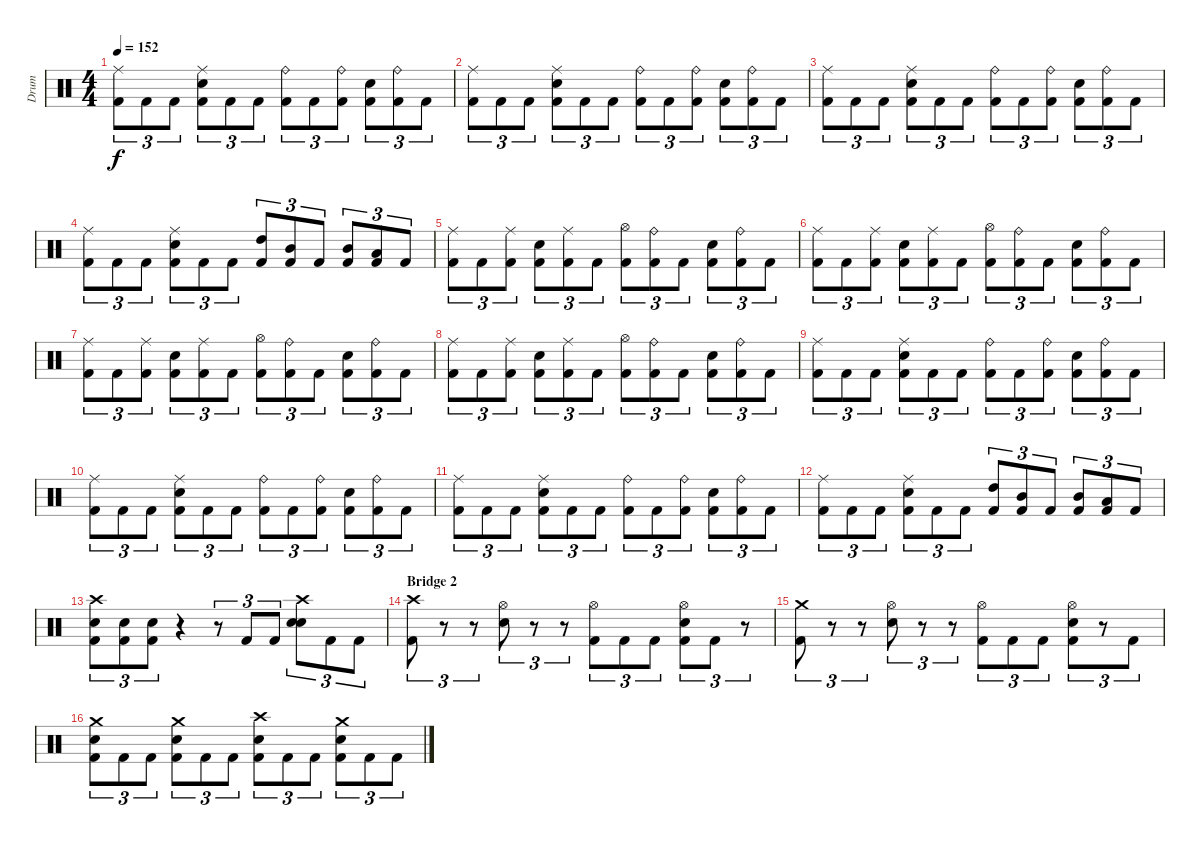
\track ("Drum" "Drum") {instrument percussion}
\staff {score}
\articulation defaults
\ts (4 4)
\tempo 152
\clef neutral
\ks c
("Ride (middle)" "Kick (hit) 2").8{tu (3 2) dy f} "Kick (hit) 2".8{tu (3 2)} "Kick (hit) 2".8{tu (3 2)} ("Ride (middle)" "Kick (hit) 2" "Electric Snare (hit)").8{tu (3 2)} "Kick (hit) 2".8{tu (3 2)} "Kick (hit) 2".8{tu (3 2)} ("Kick (hit) 2" "Ride (bell)").8{tu (3 2)} "Kick (hit) 2".8{tu (3 2)} ("Kick (hit) 2" "Ride (bell)").8{tu (3 2)} ("Electric Snare (hit)" "Kick (hit) 2").8{tu (3 2)} ("Kick (hit) 2" "Ride (bell)").8{tu (3 2)} "Kick (hit) 2".8{tu (3 2)} |
("Ride (middle)" "Kick (hit) 2").8{tu (3 2)} "Kick (hit) 2".8{tu (3 2)} "Kick (hit) 2".8{tu (3 2)} ("Electric Snare (hit)" "Kick (hit) 2" "Ride (middle)").8{tu (3 2)} "Kick (hit) 2".8{tu (3 2)} "Kick (hit) 2".8{tu (3 2)} ("Kick (hit) 2" "Ride (bell)").8{tu (3 2)} "Kick (hit) 2".8{tu (3 2)} ("Kick (hit) 2" "Ride (bell)").8{tu (3 2)} ("Electric Snare (hit)" "Kick (hit) 2").8{tu (3 2)} ("Kick (hit) 2" "Ride (bell)").8{tu (3 2)} "Kick (hit) 2".8{tu (3 2)} |
("Ride (middle)" "Kick (hit) 2").8{tu (3 2)} "Kick (hit) 2".8{tu (3 2)} "Kick (hit) 2".8{tu (3 2)} ("Ride (middle)" "Electric Snare (hit)" "Kick (hit) 2").8{tu (3 2)} "Kick (hit) 2".8{tu (3 2)} "Kick (hit) 2".8{tu (3 2)} ("Kick (hit) 2" "Ride (bell)").8{tu (3 2)} "Kick (hit) 2".8{tu (3 2)} ("Kick (hit) 2" "Ride (bell)").8{tu (3 2)} ("Electric Snare (hit)" "Kick (hit) 2").8{tu (3 2)} ("Kick (hit) 2" "Ride (bell)").8{tu (3 2)} "Kick (hit) 2".8{tu (3 2)} |
("Kick (hit) 2" "Ride (middle)").8{tu (3 2)} "Kick (hit) 2".8{tu (3 2)} "Kick (hit) 2".8{tu (3 2)} ("Ride (middle)" "Electric Snare (hit)" "Kick (hit) 2").8{tu (3 2)} "Kick (hit) 2".8{tu (3 2)} "Kick (hit) 2".8{tu (3 2)} ("Kick (hit) 2" "High Tom (hit)").8{tu (3 2)} ("Mid Tom (hit)" "Kick (hit) 2").8{tu (3 2)} "Kick (hit) 2".8{tu (3 2)} ("Kick (hit) 2" "Mid Tom (hit)").8{tu (3 2)} ("Kick (hit) 2" "Low Tom (hit)").8{tu (3 2)} "Kick (hit) 2".8{tu (3 2)} |
("Kick (hit) 2" "Ride (middle)").8{tu (3 2)} "Kick (hit) 2".8{tu (3 2)} ("Ride (middle)" "Kick (hit) 2").8{tu (3 2)} ("Electric Snare (hit)" "Kick (hit) 2").8{tu (3 2)} ("Kick (hit) 2" "Ride (middle)").8{tu (3 2)} "Kick (hit) 2".8{tu (3 2)} ("Hi-Hat (open)" "Kick (hit) 2").8{tu (3 2)} ("Ride (bell)" "Kick (hit) 2").8{tu (3 2)} "Kick (hit) 2".8{tu (3 2)} ("Electric Snare (hit)" "Kick (hit) 2").8{tu (3 2)} ("Ride (bell)" "Kick (hit) 2").8{tu (3 2)} "Kick (hit) 2".8{tu (3 2)} |
("Ride (middle)" "Kick (hit) 2").8{tu (3 2)} "Kick (hit) 2".8{tu (3 2)} ("Ride (middle)" "Kick (hit) 2").8{tu (3 2)} ("Kick (hit) 2" "Electric Snare (hit)").8{tu (3 2)} ("Kick (hit) 2" "Ride (middle)").8{tu (3 2)} "Kick (hit) 2".8{tu (3 2)} ("Hi-Hat (open)" "Kick (hit) 2").8{tu (3 2)} ("Ride (bell)" "Kick (hit) 2").8{tu (3 2)} "Kick (hit) 2".8{tu (3 2)} ("Kick (hit) 2" "Electric Snare (hit)").8{tu (3 2)} ("Ride (bell)" "Kick (hit) 2").8{tu (3 2)} "Kick (hit) 2".8{tu (3 2)} |
("Ride (middle)" "Kick (hit) 2").8{tu (3 2)} "Kick (hit) 2".8{tu (3 2)} ("Kick (hit) 2" "Ride (middle)").8{tu (3 2)} ("Electric Snare (hit)" "Kick (hit) 2").8{tu (3 2)} ("Ride (middle)" "Kick (hit) 2").8{tu (3 2)} "Kick (hit) 2".8{tu (3 2)} ("Hi-Hat (open)" "Kick (hit) 2").8{tu (3 2)} ("Kick (hit) 2" "Ride (bell)").8{tu (3 2)} "Kick (hit) 2".8{tu (3 2)} ("Electric Snare (hit)" "Kick (hit) 2").8{tu (3 2)} ("Ride (bell)" "Kick (hit) 2").8{tu (3 2)} "Kick (hit) 2".8{tu (3 2)} |
("Kick (hit) 2" "Ride (middle)").8{tu (3 2)} "Kick (hit) 2".8{tu (3 2)} ("Kick (hit) 2" "Ride (middle)").8{tu (3 2)} ("Kick (hit) 2" "Electric Snare (hit)").8{tu (3 2)} ("Ride (middle)" "Kick (hit) 2").8{tu (3 2)} "Kick (hit) 2".8{tu (3 2)} ("Hi-Hat (open)" "Kick (hit) 2").8{tu (3 2)} ("Kick (hit) 2" "Ride (bell)").8{tu (3 2)} "Kick (hit) 2".8{tu (3 2)} ("Electric Snare (hit)" "Kick (hit) 2").8{tu (3 2)} ("Kick (hit) 2" "Ride (bell)").8{tu (3 2)} "Kick (hit) 2".8{tu (3 2)} |
("Kick (hit) 2" "Ride (middle)").8{tu (3 2)} "Kick (hit) 2".8{tu (3 2)} "Kick (hit) 2".8{tu (3 2)} ("Ride (middle)" "Electric Snare (hit)" "Kick (hit) 2").8{tu (3 2)} "Kick (hit) 2".8{tu (3 2)} "Kick (hit) 2".8{tu (3 2)} ("Ride (bell)" "Kick (hit) 2").8{tu (3 2)} "Kick (hit) 2".8{tu (3 2)} ("Ride (bell)" "Kick (hit) 2").8{tu (3 2)} ("Kick (hit) 2" "Electric Snare (hit)").8{tu (3 2)} ("Ride (bell)" "Kick (hit) 2").8{tu (3 2)} "Kick (hit) 2".8{tu (3 2)} |
("Ride (middle)" "Kick (hit) 2").8{tu (3 2)} "Kick (hit) 2".8{tu (3 2)} "Kick (hit) 2".8{tu (3 2)} ("Ride (middle)" "Electric Snare (hit)" "Kick (hit) 2").8{tu (3 2)} "Kick (hit) 2".8{tu (3 2)} "Kick (hit) 2".8{tu (3 2)} ("Kick (hit) 2" "Ride (bell)").8{tu (3 2)} "Kick (hit) 2".8{tu (3 2)} ("Kick (hit) 2" "Ride (bell)").8{tu (3 2)} ("Electric Snare (hit)" "Kick (hit) 2").8{tu (3 2)} ("Kick (hit) 2" "Ride (bell)").8{tu (3 2)} "Kick (hit) 2".8{tu (3 2)} |
("Kick (hit) 2" "Ride (middle)").8{tu (3 2)} "Kick (hit) 2".8{tu (3 2)} "Kick (hit) 2".8{tu (3 2)} ("Kick (hit) 2" "Electric Snare (hit)" "Ride (middle)").8{tu (3 2)} "Kick (hit) 2".8{tu (3 2)} "Kick (hit) 2".8{tu (3 2)} ("Kick (hit) 2" "Ride (bell)").8{tu (3 2)} "Kick (hit) 2".8{tu (3 2)} ("Kick (hit) 2" "Ride (bell)").8{tu (3 2)} ("Electric Snare (hit)" "Kick (hit) 2").8{tu (3 2)} ("Kick (hit) 2" "Ride (bell)").8{tu (3 2)} "Kick (hit) 2".8{tu (3 2)} |
("Ride (middle)" "Kick (hit) 2").8{tu (3 2)} "Kick (hit) 2".8{tu (3 2)} "Kick (hit) 2".8{tu (3 2)} ("Kick (hit) 2" "Ride (middle)" "Electric Snare (hit)").8{tu (3 2)} "Kick (hit) 2".8{tu (3 2)} "Kick (hit) 2".8{tu (3 2)} ("Kick (hit) 2" "High Tom (hit)").8{tu (3 2)} ("Kick (hit) 2" "Mid Tom (hit)").8{tu (3 2)} "Kick (hit) 2".8{tu (3 2)} ("Mid Tom (hit)" "Kick (hit) 2").8{tu (3 2)} ("Low Tom (hit)" "Kick (hit) 2").8{tu (3 2)} "Kick (hit) 2".8{tu (3 2)} |
("Crash high (hit)" "Electric Snare (hit)" "Kick (hit) 2").8{tu (3 2)} ("Kick (hit) 2" "Electric Snare (hit)").8{tu (3 2)} ("Kick (hit) 2" "Electric Snare (hit)").8{tu (3 2)} r.4 r.8{tu (3 2)} "Kick (hit) 2".8{tu (3 2)} "Kick (hit) 2".8{tu (3 2)} ("Electric Snare (hit)" "Crash high (hit)" "Electric Snare (hit)").8{tu (3 2)} "Kick (hit) 2".8{tu (3 2)} "Kick (hit) 2".8{tu (3 2)} |
\section ("" "Bridge 2")
("Kick (hit) 2" "Crash high (hit)").8{tu (3 2)} r.8{tu (3 2)} r.8{tu (3 2)} ("Electric Snare (hit)" "Hi-Hat (open)").8{tu (3 2)} r.8{tu (3 2)} r.8{tu (3 2)} ("Hi-Hat (open)" "Kick (hit) 2").8{tu (3 2)} "Kick (hit) 2".8{tu (3 2)} "Kick (hit) 2".8{tu (3 2)} ("Kick (hit) 2" "Electric Snare (hit)" "Hi-Hat (open)").8{tu (3 2)} "Kick (hit) 2".8{tu (3 2)} r.8{tu (3 2)} |
("Crash medium (hit)" "Kick (hit) 2").8{tu (3 2)} r.8{tu (3 2)} r.8{tu (3 2)} ("Hi-Hat (open)" "Electric Snare (hit)").8{tu (3 2)} r.8{tu (3 2)} r.8{tu (3 2)} ("Hi-Hat (open)" "Kick (hit) 2").8{tu (3 2)} "Kick (hit) 2".8{tu (3 2)} "Kick (hit) 2".8{tu (3 2)} ("Hi-Hat (open)" "Kick (hit) 2" "Electric Snare (hit)").8{tu (3 2)} r.8{tu (3 2)} "Kick (hit) 2".8{tu (3 2)} |
("Electric Snare (hit)" "Kick (hit) 2" "Crash medium (hit)").8{tu (3 2)} "Kick (hit) 2".8{tu (3 2)} "Kick (hit) 2".8{tu (3 2)} ("Crash medium (hit)" "Kick (hit) 2" "Electric Snare (hit)").8{tu (3 2)} "Kick (hit) 2".8{tu (3 2)} "Kick (hit) 2".8{tu (3 2)} ("Kick (hit) 2" "Electric Snare (hit)" "Crash high (hit)").8{tu (3 2)} "Kick (hit) 2".8{tu (3 2)} "Kick (hit) 2".8{tu (3 2)} ("Kick (hit) 2" "Electric Snare (hit)" "Crash medium (hit)").8{tu (3 2)} "Kick (hit) 2".8{tu (3 2)} "Kick (hit) 2".8{tu (3 2)}
